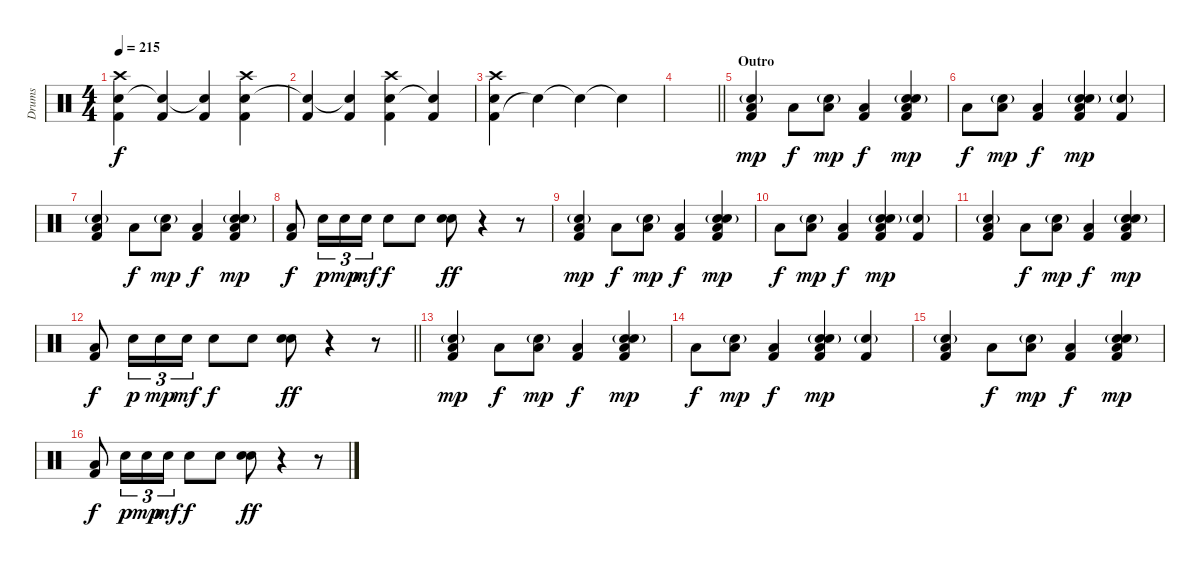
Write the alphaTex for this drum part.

\track ("Drums" "Drums") {instrument percussion}
\staff {score}
\articulation defaults
\ts (4 4)
\tempo 215
\clef neutral
\ks c
("Kick (hit) 2" "Snare (hit) 2" "Crash high (hit)").4{dy f} ("Kick (hit) 2" "Snare (hit)"{t}).4 ("Kick (hit) 2" "Snare (hit)"{t}).4 ("Kick (hit) 2" "Snare (hit) 2" "Crash high (hit)").4 |
("Kick (hit) 2" "Snare (hit)"{t}).4 ("Kick (hit) 2" "Snare (hit)"{t}).4 ("Kick (hit) 2" "Snare (hit) 2" "Crash high (hit)").4 ("Kick (hit) 2" "Snare (hit)"{t}).4 |
("Kick (hit) 2" "Snare (hit) 2" "Crash high (hit)").4 "Snare (hit)"{t}.4 "Snare (hit)"{t}.4 "Snare (hit)"{t}.4 |
\barLineRight lightlight
|
\section ("" "Outro")
("Electric Snare (hit)"{g} "Low Floor Tom (hit)" "Kick (hit) 2").4{dy mp} "Low Floor Tom (hit)".8{dy f} ("Electric Snare (hit)"{g} "Low Floor Tom (hit)").8{dy mp} ("Low Floor Tom (hit)" "Kick (hit) 2").4{dy f} ("Electric Snare (hit)" "Kick (hit) 2" "Low Floor Tom (hit)" "Snare (hit) 2"{g}).4{dy mp} |
"Low Floor Tom (hit)".8{dy f} ("Electric Snare (hit)"{g} "Low Floor Tom (hit)").8{dy mp} ("Low Floor Tom (hit)" "Kick (hit) 2").4{dy f} ("Snare (hit) 2"{g} "Electric Snare (hit)" "Kick (hit) 2" "Low Floor Tom (hit)").4{dy mp} ("Electric Snare (hit)"{g} "Kick (hit) 2").4 |
("Electric Snare (hit)"{g} "Low Floor Tom (hit)" "Kick (hit) 2").4 "Low Floor Tom (hit)".8{dy f} ("Electric Snare (hit)"{g} "Low Floor Tom (hit)").8{dy mp} ("Low Floor Tom (hit)" "Kick (hit) 2").4{dy f} ("Electric Snare (hit)" "Kick (hit) 2" "Low Floor Tom (hit)" "Snare (hit) 2"{g}).4{dy mp} |
("Low Floor Tom (hit)" "Kick (hit) 2").8{dy f} "Snare (hit) 2".16{tu (3 2) dy p} "Snare (hit) 2".16{tu (3 2) dy mp} "Snare (hit) 2".16{tu (3 2) dy mf} "Snare (hit) 2".8{dy f} "Snare (hit) 2".8 ("Electric Snare (hit)" "Snare (hit) 2").8{dy ff} r.4 r.8 |
("Electric Snare (hit)"{g} "Low Floor Tom (hit)" "Kick (hit) 2").4{dy mp} "Low Floor Tom (hit)".8{dy f} ("Electric Snare (hit)"{g} "Low Floor Tom (hit)").8{dy mp} ("Low Floor Tom (hit)" "Kick (hit) 2").4{dy f} ("Electric Snare (hit)" "Kick (hit) 2" "Low Floor Tom (hit)" "Snare (hit) 2"{g}).4{dy mp} |
"Low Floor Tom (hit)".8{dy f} ("Electric Snare (hit)"{g} "Low Floor Tom (hit)").8{dy mp} ("Low Floor Tom (hit)" "Kick (hit) 2").4{dy f} ("Snare (hit) 2"{g} "Electric Snare (hit)" "Kick (hit) 2" "Low Floor Tom (hit)").4{dy mp} ("Electric Snare (hit)"{g} "Kick (hit) 2").4 |
("Electric Snare (hit)"{g} "Low Floor Tom (hit)" "Kick (hit) 2").4 "Low Floor Tom (hit)".8{dy f} ("Electric Snare (hit)"{g} "Low Floor Tom (hit)").8{dy mp} ("Low Floor Tom (hit)" "Kick (hit) 2").4{dy f} ("Electric Snare (hit)" "Kick (hit) 2" "Low Floor Tom (hit)" "Snare (hit) 2"{g}).4{dy mp} |
\barLineRight lightlight
("Low Floor Tom (hit)" "Kick (hit) 2").8{dy f} "Snare (hit) 2".16{tu (3 2) dy p} "Snare (hit) 2".16{tu (3 2) dy mp} "Snare (hit) 2".16{tu (3 2) dy mf} "Snare (hit) 2".8{dy f} "Snare (hit) 2".8 ("Electric Snare (hit)" "Snare (hit) 2").8{dy ff} r.4 r.8 |
("Electric Snare (hit)"{g} "Low Floor Tom (hit)" "Kick (hit) 2").4{dy mp} "Low Floor Tom (hit)".8{dy f} ("Electric Snare (hit)"{g} "Low Floor Tom (hit)").8{dy mp} ("Low Floor Tom (hit)" "Kick (hit) 2").4{dy f} ("Electric Snare (hit)" "Kick (hit) 2" "Low Floor Tom (hit)" "Snare (hit) 2"{g}).4{dy mp} |
"Low Floor Tom (hit)".8{dy f} ("Electric Snare (hit)"{g} "Low Floor Tom (hit)").8{dy mp} ("Low Floor Tom (hit)" "Kick (hit) 2").4{dy f} ("Snare (hit) 2"{g} "Electric Snare (hit)" "Kick (hit) 2" "Low Floor Tom (hit)").4{dy mp} ("Electric Snare (hit)"{g} "Kick (hit) 2").4 |
("Electric Snare (hit)"{g} "Low Floor Tom (hit)" "Kick (hit) 2").4 "Low Floor Tom (hit)".8{dy f} ("Electric Snare (hit)"{g} "Low Floor Tom (hit)").8{dy mp} ("Low Floor Tom (hit)" "Kick (hit) 2").4{dy f} ("Electric Snare (hit)" "Kick (hit) 2" "Low Floor Tom (hit)" "Snare (hit) 2"{g}).4{dy mp} |
("Low Floor Tom (hit)" "Kick (hit) 2").8{dy f} "Snare (hit) 2".16{tu (3 2) dy p} "Snare (hit) 2".16{tu (3 2) dy mp} "Snare (hit) 2".16{tu (3 2) dy mf} "Snare (hit) 2".8{dy f} "Snare (hit) 2".8 ("Electric Snare (hit)" "Snare (hit) 2").8{dy ff} r.4 r.8
